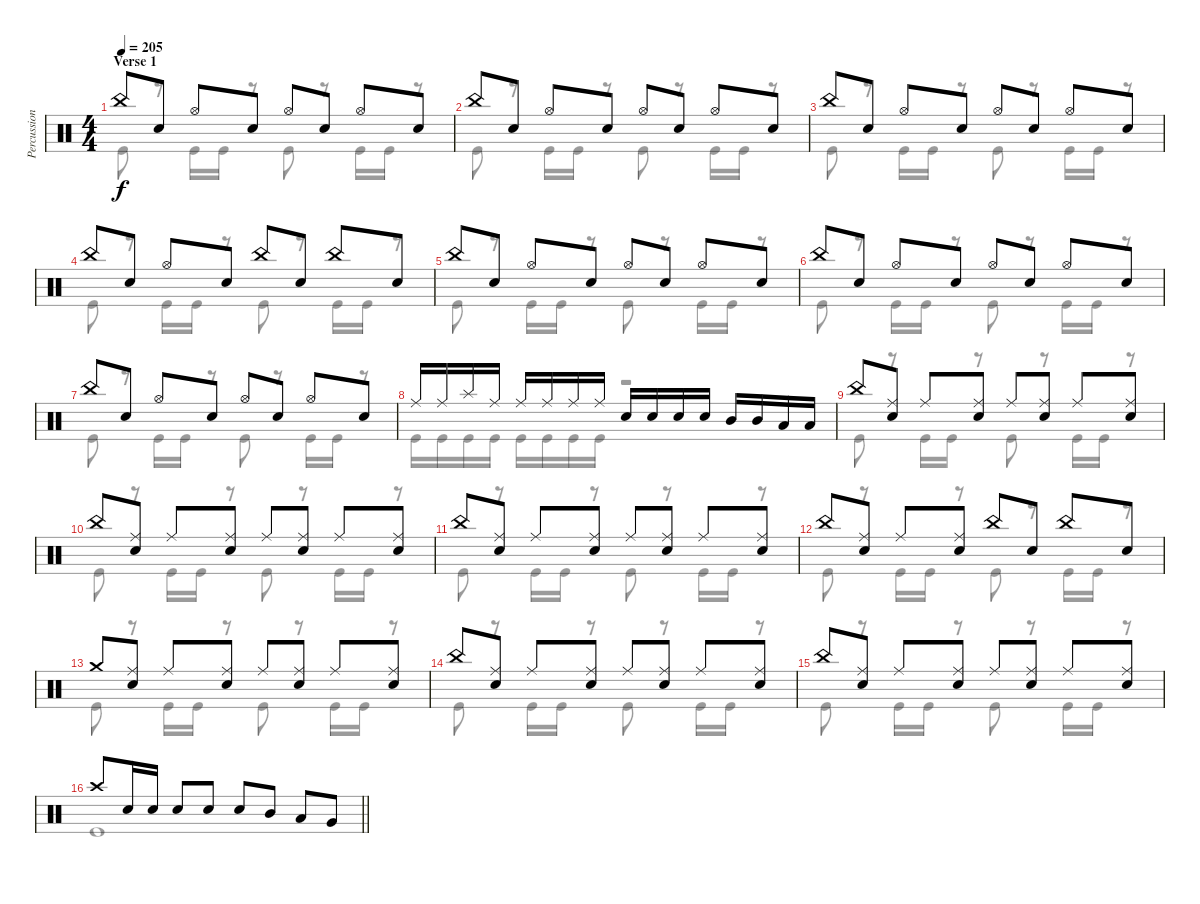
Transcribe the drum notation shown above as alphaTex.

\track ("Percussion" "Percussion") {instrument percussion}
\staff {score}
\articulation defaults
\voice
\ts (4 4)
\section ("" "Verse 1")
\tempo 205
\clef neutral
\ks c "China (hit)".8{dy f} "Electric Snare (hit)".8 "Hi-Hat (open)".8 "Electric Snare (hit)".8 "Hi-Hat (open)".8 "Electric Snare (hit)".8 "Hi-Hat (open)".8 "Electric Snare (hit)".8
|
"China (hit)".8 "Electric Snare (hit)".8 "Hi-Hat (open)".8 "Electric Snare (hit)".8 "Hi-Hat (open)".8 "Electric Snare (hit)".8 "Hi-Hat (open)".8 "Electric Snare (hit)".8 |
"China (hit)".8 "Electric Snare (hit)".8 "Hi-Hat (open)".8 "Electric Snare (hit)".8 "Hi-Hat (open)".8 "Electric Snare (hit)".8 "Hi-Hat (open)".8 "Electric Snare (hit)".8 |
"China (hit)".8 "Electric Snare (hit)".8 "Hi-Hat (open)".8 "Electric Snare (hit)".8 "China (hit)".8 "Electric Snare (hit)".8 "China (hit)".8 "Electric Snare (hit)".8 |
"China (hit)".8 "Electric Snare (hit)".8 "Hi-Hat (open)".8 "Electric Snare (hit)".8 "Hi-Hat (open)".8 "Electric Snare (hit)".8 "Hi-Hat (open)".8 "Electric Snare (hit)".8 |
"China (hit)".8 "Electric Snare (hit)".8 "Hi-Hat (open)".8 "Electric Snare (hit)".8 "Hi-Hat (open)".8 "Electric Snare (hit)".8 "Hi-Hat (open)".8 "Electric Snare (hit)".8 |
"China (hit)".8 "Electric Snare (hit)".8 "Hi-Hat (open)".8 "Electric Snare (hit)".8 "Hi-Hat (open)".8 "Electric Snare (hit)".8 "Hi-Hat (open)".8 "Electric Snare (hit)".8 |
"Ride (middle)".16 "Ride (middle)".16 "Splash (hit)".16 "Ride (middle)".16 "Ride (middle)".16 "Ride (middle)".16 "Ride (middle)".16 "Ride (middle)".16 "Electric Snare (hit)".16 "Electric Snare (hit)".16 "Electric Snare (hit)".16 "Electric Snare (hit)".16 "Mid Tom (hit)".16 "Mid Tom (hit)".16 "Low Tom (hit)".16 "Low Tom (hit)".16 |
"China (hit)".8 ("Ride (middle)" "Electric Snare (hit)").8 "Ride (middle)".8 ("Ride (middle)" "Electric Snare (hit)").8 "Ride (middle)".8 ("Ride (middle)" "Electric Snare (hit)").8 "Ride (middle)".8 ("Ride (middle)" "Electric Snare (hit)").8 |
"China (hit)".8 ("Ride (middle)" "Electric Snare (hit)").8 "Ride (middle)".8 ("Ride (middle)" "Electric Snare (hit)").8 "Ride (middle)".8 ("Ride (middle)" "Electric Snare (hit)").8 "Ride (middle)".8 ("Ride (middle)" "Electric Snare (hit)").8 |
"China (hit)".8 ("Ride (middle)" "Electric Snare (hit)").8 "Ride (middle)".8 ("Ride (middle)" "Electric Snare (hit)").8 "Ride (middle)".8 ("Ride (middle)" "Electric Snare (hit)").8 "Ride (middle)".8 ("Ride (middle)" "Electric Snare (hit)").8 |
"China (hit)".8 ("Ride (middle)" "Electric Snare (hit)").8 "Ride (middle)".8 ("Ride (middle)" "Electric Snare (hit)").8 "China (hit)".8 "Electric Snare (hit)".8 "China (hit)".8 "Electric Snare (hit)".8 |
"Crash medium (hit)".8 ("Ride (middle)" "Electric Snare (hit)").8 "Ride (middle)".8 ("Ride (middle)" "Electric Snare (hit)").8 "Ride (middle)".8 ("Ride (middle)" "Electric Snare (hit)").8 "Ride (middle)".8 ("Ride (middle)" "Electric Snare (hit)").8 |
"China (hit)".8 ("Ride (middle)" "Electric Snare (hit)").8 "Ride (middle)".8 ("Ride (middle)" "Electric Snare (hit)").8 "Ride (middle)".8 ("Ride (middle)" "Electric Snare (hit)").8 "Ride (middle)".8 ("Ride (middle)" "Electric Snare (hit)").8 |
"China (hit)".8 ("Ride (middle)" "Electric Snare (hit)").8 "Ride (middle)".8 ("Ride (middle)" "Electric Snare (hit)").8 "Ride (middle)".8 ("Ride (middle)" "Electric Snare (hit)").8 "Ride (middle)".8 ("Ride (middle)" "Electric Snare (hit)").8 |
\barLineRight lightlight "Crash high (hit)".8 "Electric Snare (hit)".16 "Electric Snare (hit)".16 "Electric Snare (hit)".8 "Electric Snare (hit)".8 "Electric Snare (hit)".8 "Mid Tom (hit)".8 "Low Tom (hit)".8 "Very Low Tom (hit)".8
\voice
\clef neutral
\ottava regular
\simile none
\ks c "Kick (hit)".8{dy f}
r.8 "Kick (hit)".16 "Kick (hit)".16 r.8 "Kick (hit)".8 r.8 "Kick (hit)".16 "Kick (hit)".16 r.8 |
"Kick (hit)".8 r.8 "Kick (hit)".16 "Kick (hit)".16 r.8 "Kick (hit)".8 r.8 "Kick (hit)".16 "Kick (hit)".16 r.8 |
"Kick (hit)".8 r.8 "Kick (hit)".16 "Kick (hit)".16 r.8 "Kick (hit)".8 r.8 "Kick (hit)".16 "Kick (hit)".16 r.8 |
"Kick (hit)".8 r.8 "Kick (hit)".16 "Kick (hit)".16 r.8 "Kick (hit)".8 r.8 "Kick (hit)".16 "Kick (hit)".16 r.8 |
"Kick (hit)".8 r.8 "Kick (hit)".16 "Kick (hit)".16 r.8 "Kick (hit)".8 r.8 "Kick (hit)".16 "Kick (hit)".16 r.8 |
"Kick (hit)".8 r.8 "Kick (hit)".16 "Kick (hit)".16 r.8 "Kick (hit)".8 r.8 "Kick (hit)".16 "Kick (hit)".16 r.8 |
"Kick (hit)".8 r.8 "Kick (hit)".16 "Kick (hit)".16 r.8 "Kick (hit)".8 r.8 "Kick (hit)".16 "Kick (hit)".16 r.8 |
"Kick (hit)".16 "Kick (hit)".16 "Kick (hit)".16 "Kick (hit)".16 "Kick (hit)".16 "Kick (hit)".16 "Kick (hit)".16 "Kick (hit)".16 r.2 |
"Kick (hit)".8 r.8 "Kick (hit)".16 "Kick (hit)".16 r.8 "Kick (hit)".8 r.8 "Kick (hit)".16 "Kick (hit)".16 r.8 |
"Kick (hit)".8 r.8 "Kick (hit)".16 "Kick (hit)".16 r.8 "Kick (hit)".8 r.8 "Kick (hit)".16 "Kick (hit)".16 r.8 |
"Kick (hit)".8 r.8 "Kick (hit)".16 "Kick (hit)".16 r.8 "Kick (hit)".8 r.8 "Kick (hit)".16 "Kick (hit)".16 r.8 |
"Kick (hit)".8 r.8 "Kick (hit)".16 "Kick (hit)".16 r.8 "Kick (hit)".8 r.8 "Kick (hit)".16 "Kick (hit)".16 r.8 |
"Kick (hit)".8 r.8 "Kick (hit)".16 "Kick (hit)".16 r.8 "Kick (hit)".8 r.8 "Kick (hit)".16 "Kick (hit)".16 r.8 |
"Kick (hit)".8 r.8 "Kick (hit)".16 "Kick (hit)".16 r.8 "Kick (hit)".8 r.8 "Kick (hit)".16 "Kick (hit)".16 r.8 |
"Kick (hit)".8 r.8 "Kick (hit)".16 "Kick (hit)".16 r.8 "Kick (hit)".8 r.8 "Kick (hit)".16 "Kick (hit)".16 r.8 |
\barLineRight lightlight "Kick (hit)".1
